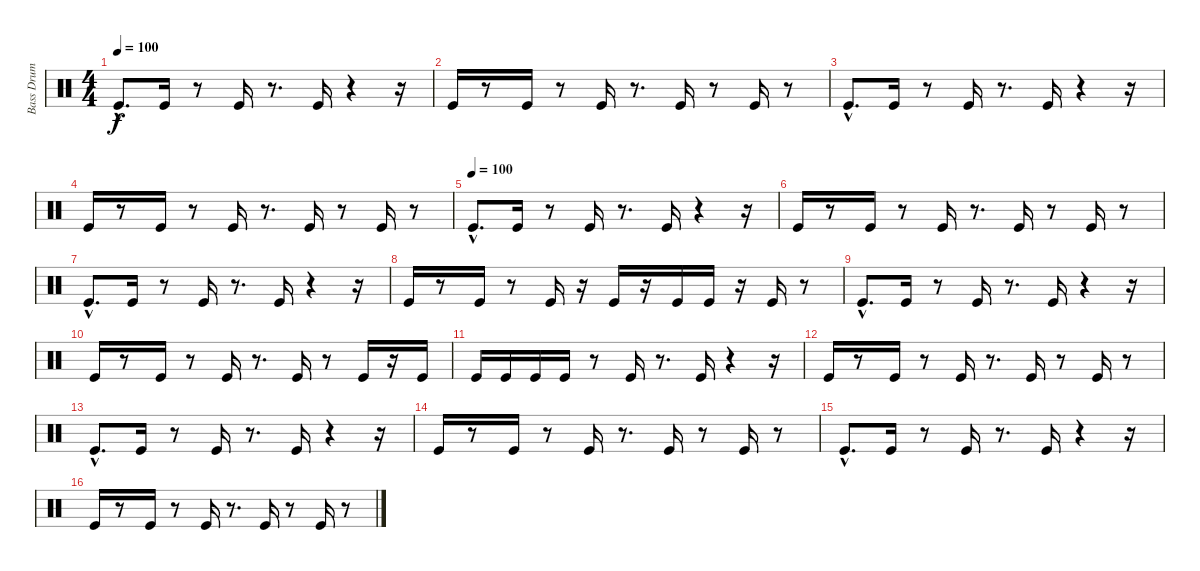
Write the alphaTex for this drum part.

\track ("Bass Drum" "Bass Drum") {instrument percussion}
\staff {score}
\articulation defaults
\ts (4 4)
\tempo 100
\clef neutral
\ks c "Kick (hit)"{hac}.8{d dy f} "Kick (hit)".16
r.8 "Kick (hit)".16 r.8{d} "Kick (hit)".16 r.4 r.16 |
"Kick (hit)".16 r.8 "Kick (hit)".16 r.8 "Kick (hit)".16 r.8{d} "Kick (hit)".16 r.8 "Kick (hit)".16 r.8 |
"Kick (hit)"{hac}.8{d} "Kick (hit)".16 r.8 "Kick (hit)".16 r.8{d} "Kick (hit)".16 r.4 r.16 |
"Kick (hit)".16 r.8 "Kick (hit)".16 r.8 "Kick (hit)".16 r.8{d} "Kick (hit)".16 r.8 "Kick (hit)".16 r.8 |
\tempo (100)
"Kick (hit)"{hac}.8{d} "Kick (hit)".16 r.8 "Kick (hit)".16 r.8{d} "Kick (hit)".16 r.4 r.16 |
"Kick (hit)".16 r.8 "Kick (hit)".16 r.8 "Kick (hit)".16 r.8{d} "Kick (hit)".16 r.8 "Kick (hit)".16 r.8 |
"Kick (hit)"{hac}.8{d} "Kick (hit)".16 r.8 "Kick (hit)".16 r.8{d} "Kick (hit)".16 r.4 r.16 |
"Kick (hit)".16 r.8 "Kick (hit)".16 r.8 "Kick (hit)".16 r.16 "Kick (hit)".16 r.16 "Kick (hit)".16 "Kick (hit)".16 r.16 "Kick (hit)".16 r.8 |
"Kick (hit)"{hac}.8{d} "Kick (hit)".16 r.8 "Kick (hit)".16 r.8{d} "Kick (hit)".16 r.4 r.16 |
"Kick (hit)".16 r.8 "Kick (hit)".16 r.8 "Kick (hit)".16 r.8{d} "Kick (hit)".16 r.8 "Kick (hit)".16 r.16 "Kick (hit)".16 |
"Kick (hit)".16 "Kick (hit)".16 "Kick (hit)".16 "Kick (hit)".16 r.8 "Kick (hit)".16 r.8{d} "Kick (hit)".16 r.4 r.16 |
"Kick (hit)".16 r.8 "Kick (hit)".16 r.8 "Kick (hit)".16 r.8{d} "Kick (hit)".16 r.8 "Kick (hit)".16 r.8 |
"Kick (hit)"{hac}.8{d} "Kick (hit)".16 r.8 "Kick (hit)".16 r.8{d} "Kick (hit)".16 r.4 r.16 |
"Kick (hit)".16 r.8 "Kick (hit)".16 r.8 "Kick (hit)".16 r.8{d} "Kick (hit)".16 r.8 "Kick (hit)".16 r.8 |
"Kick (hit)"{hac}.8{d} "Kick (hit)".16 r.8 "Kick (hit)".16 r.8{d} "Kick (hit)".16 r.4 r.16 |
"Kick (hit)".16 r.8 "Kick (hit)".16 r.8 "Kick (hit)".16 r.8{d} "Kick (hit)".16 r.8 "Kick (hit)".16 r.8
